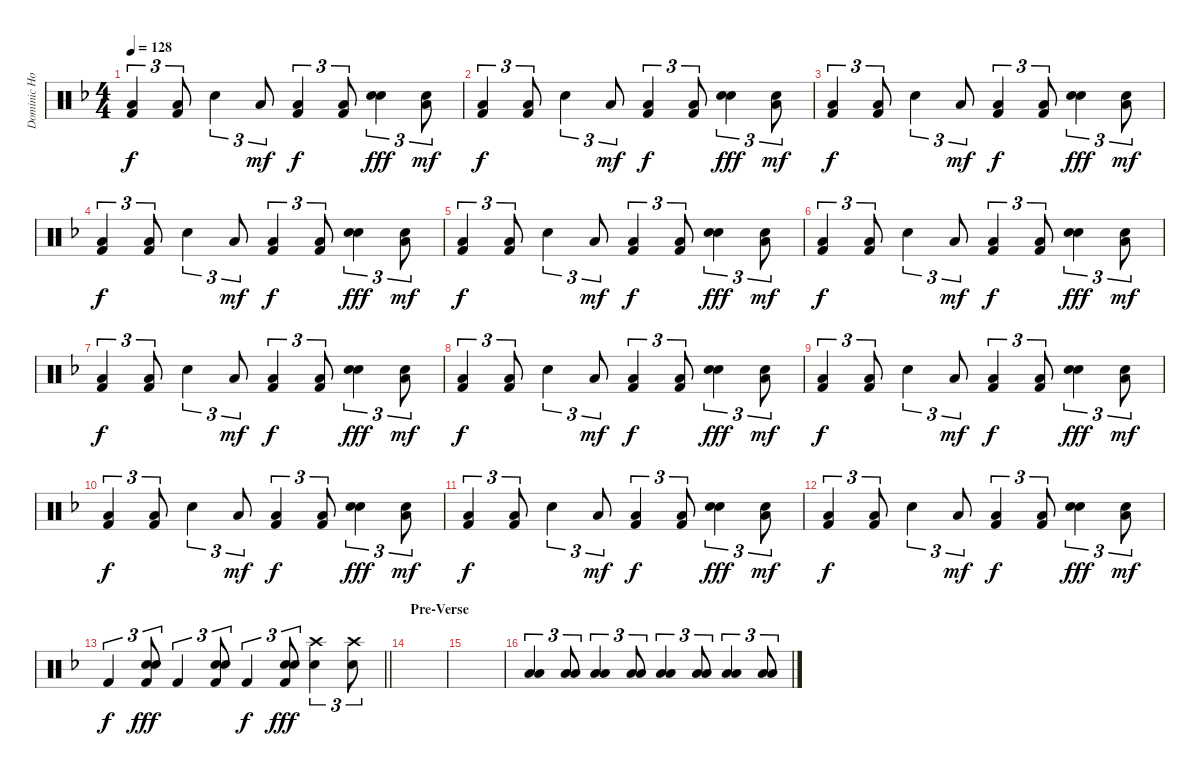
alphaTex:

\track ("Dominic Howard Drums" "Dominic Ho") {instrument percussion}
\staff {score}
\articulation defaults
\ts (4 4)
\tempo 128
\clef neutral
\ks dminor
("Low Floor Tom (hit)" "Kick (hit) 2").4{tu (3 2) dy f} ("Low Floor Tom (hit)" "Kick (hit) 2").8{tu (3 2)} "Snare (hit) 2".4{tu (3 2)} "Low Tom (hit)".8{tu (3 2) dy mf} ("Low Floor Tom (hit)" "Kick (hit) 2").4{tu (3 2) dy f} ("Low Floor Tom (hit)" "Kick (hit) 2").8{tu (3 2)} ("Hand Clap (hit)" "Snare (hit) 2").4{tu (3 2) dy fff} ("Hand Clap (hit)" "Low Tom (hit)").8{tu (3 2) dy mf} |
("Low Floor Tom (hit)" "Kick (hit) 2").4{tu (3 2) dy f} ("Low Floor Tom (hit)" "Kick (hit) 2").8{tu (3 2)} "Snare (hit) 2".4{tu (3 2)} "Low Tom (hit)".8{tu (3 2) dy mf} ("Low Floor Tom (hit)" "Kick (hit) 2").4{tu (3 2) dy f} ("Low Floor Tom (hit)" "Kick (hit) 2").8{tu (3 2)} ("Hand Clap (hit)" "Snare (hit) 2").4{tu (3 2) dy fff} ("Hand Clap (hit)" "Low Tom (hit)").8{tu (3 2) dy mf} |
("Low Floor Tom (hit)" "Kick (hit) 2").4{tu (3 2) dy f} ("Low Floor Tom (hit)" "Kick (hit) 2").8{tu (3 2)} "Snare (hit) 2".4{tu (3 2)} "Low Tom (hit)".8{tu (3 2) dy mf} ("Low Floor Tom (hit)" "Kick (hit) 2").4{tu (3 2) dy f} ("Low Floor Tom (hit)" "Kick (hit) 2").8{tu (3 2)} ("Hand Clap (hit)" "Snare (hit) 2").4{tu (3 2) dy fff} ("Hand Clap (hit)" "Low Tom (hit)").8{tu (3 2) dy mf} |
("Low Floor Tom (hit)" "Kick (hit) 2").4{tu (3 2) dy f} ("Low Floor Tom (hit)" "Kick (hit) 2").8{tu (3 2)} "Snare (hit) 2".4{tu (3 2)} "Low Tom (hit)".8{tu (3 2) dy mf} ("Low Floor Tom (hit)" "Kick (hit) 2").4{tu (3 2) dy f} ("Low Floor Tom (hit)" "Kick (hit) 2").8{tu (3 2)} ("Hand Clap (hit)" "Snare (hit) 2").4{tu (3 2) dy fff} ("Hand Clap (hit)" "Low Tom (hit)").8{tu (3 2) dy mf} |
("Low Floor Tom (hit)" "Kick (hit) 2").4{tu (3 2) dy f} ("Low Floor Tom (hit)" "Kick (hit) 2").8{tu (3 2)} "Snare (hit) 2".4{tu (3 2)} "Low Tom (hit)".8{tu (3 2) dy mf} ("Low Floor Tom (hit)" "Kick (hit) 2").4{tu (3 2) dy f} ("Low Floor Tom (hit)" "Kick (hit) 2").8{tu (3 2)} ("Hand Clap (hit)" "Snare (hit) 2").4{tu (3 2) dy fff} ("Hand Clap (hit)" "Low Tom (hit)").8{tu (3 2) dy mf} |
("Low Floor Tom (hit)" "Kick (hit) 2").4{tu (3 2) dy f} ("Low Floor Tom (hit)" "Kick (hit) 2").8{tu (3 2)} "Snare (hit) 2".4{tu (3 2)} "Low Tom (hit)".8{tu (3 2) dy mf} ("Low Floor Tom (hit)" "Kick (hit) 2").4{tu (3 2) dy f} ("Low Floor Tom (hit)" "Kick (hit) 2").8{tu (3 2)} ("Hand Clap (hit)" "Snare (hit) 2").4{tu (3 2) dy fff} ("Hand Clap (hit)" "Low Tom (hit)").8{tu (3 2) dy mf} |
("Low Floor Tom (hit)" "Kick (hit) 2").4{tu (3 2) dy f} ("Low Floor Tom (hit)" "Kick (hit) 2").8{tu (3 2)} "Snare (hit) 2".4{tu (3 2)} "Low Tom (hit)".8{tu (3 2) dy mf} ("Low Floor Tom (hit)" "Kick (hit) 2").4{tu (3 2) dy f} ("Low Floor Tom (hit)" "Kick (hit) 2").8{tu (3 2)} ("Hand Clap (hit)" "Snare (hit) 2").4{tu (3 2) dy fff} ("Hand Clap (hit)" "Low Tom (hit)").8{tu (3 2) dy mf} |
("Low Floor Tom (hit)" "Kick (hit) 2").4{tu (3 2) dy f} ("Low Floor Tom (hit)" "Kick (hit) 2").8{tu (3 2)} "Snare (hit) 2".4{tu (3 2)} "Low Tom (hit)".8{tu (3 2) dy mf} ("Low Floor Tom (hit)" "Kick (hit) 2").4{tu (3 2) dy f} ("Low Floor Tom (hit)" "Kick (hit) 2").8{tu (3 2)} ("Hand Clap (hit)" "Snare (hit) 2").4{tu (3 2) dy fff} ("Hand Clap (hit)" "Low Tom (hit)").8{tu (3 2) dy mf} |
("Low Floor Tom (hit)" "Kick (hit) 2").4{tu (3 2) dy f} ("Low Floor Tom (hit)" "Kick (hit) 2").8{tu (3 2)} "Snare (hit) 2".4{tu (3 2)} "Low Tom (hit)".8{tu (3 2) dy mf} ("Low Floor Tom (hit)" "Kick (hit) 2").4{tu (3 2) dy f} ("Low Floor Tom (hit)" "Kick (hit) 2").8{tu (3 2)} ("Hand Clap (hit)" "Snare (hit) 2").4{tu (3 2) dy fff} ("Hand Clap (hit)" "Low Tom (hit)").8{tu (3 2) dy mf} |
("Low Floor Tom (hit)" "Kick (hit) 2").4{tu (3 2) dy f} ("Low Floor Tom (hit)" "Kick (hit) 2").8{tu (3 2)} "Snare (hit) 2".4{tu (3 2)} "Low Tom (hit)".8{tu (3 2) dy mf} ("Low Floor Tom (hit)" "Kick (hit) 2").4{tu (3 2) dy f} ("Low Floor Tom (hit)" "Kick (hit) 2").8{tu (3 2)} ("Hand Clap (hit)" "Snare (hit) 2").4{tu (3 2) dy fff} ("Hand Clap (hit)" "Low Tom (hit)").8{tu (3 2) dy mf} |
("Low Floor Tom (hit)" "Kick (hit) 2").4{tu (3 2) dy f} ("Low Floor Tom (hit)" "Kick (hit) 2").8{tu (3 2)} "Snare (hit) 2".4{tu (3 2)} "Low Tom (hit)".8{tu (3 2) dy mf} ("Low Floor Tom (hit)" "Kick (hit) 2").4{tu (3 2) dy f} ("Low Floor Tom (hit)" "Kick (hit) 2").8{tu (3 2)} ("Hand Clap (hit)" "Snare (hit) 2").4{tu (3 2) dy fff} ("Hand Clap (hit)" "Low Tom (hit)").8{tu (3 2) dy mf} |
("Low Floor Tom (hit)" "Kick (hit) 2").4{tu (3 2) dy f} ("Low Floor Tom (hit)" "Kick (hit) 2").8{tu (3 2)} "Snare (hit) 2".4{tu (3 2)} "Low Tom (hit)".8{tu (3 2) dy mf} ("Low Floor Tom (hit)" "Kick (hit) 2").4{tu (3 2) dy f} ("Low Floor Tom (hit)" "Kick (hit) 2").8{tu (3 2)} ("Hand Clap (hit)" "Snare (hit) 2").4{tu (3 2) dy fff} ("Hand Clap (hit)" "Low Tom (hit)").8{tu (3 2) dy mf} |
\barLineRight lightlight "Kick (hit) 2".4{tu (3 2) dy f}
("Electric Snare (hit)" "Snare (hit) 2" "Kick (hit) 2").8{tu (3 2) dy fff} "Kick (hit) 2".4{tu (3 2)} ("Electric Snare (hit)" "Snare (hit) 2" "Kick (hit) 2").8{tu (3 2)} "Kick (hit) 2".4{tu (3 2) dy f} ("Electric Snare (hit)" "Snare (hit) 2" "Kick (hit) 2").8{tu (3 2) dy fff} ("Crash high (hit)" "Snare (hit) 2").4{tu (3 2)} ("Crash high (hit)" "Snare (hit) 2").8{tu (3 2)} |
\section ("" "Pre-Verse")
|
|
("Low Tom (hit)" "Low Floor Tom (hit)").4{tu (3 2) volume 13} ("Low Tom (hit)" "Low Floor Tom (hit)").8{tu (3 2)} ("Low Tom (hit)" "Low Floor Tom (hit)").4{tu (3 2)} ("Low Tom (hit)" "Low Floor Tom (hit)").8{tu (3 2)} ("Low Tom (hit)" "Low Floor Tom (hit)").4{tu (3 2)} ("Low Tom (hit)" "Low Floor Tom (hit)").8{tu (3 2)} ("Low Tom (hit)" "Low Floor Tom (hit)").4{tu (3 2)} ("Low Tom (hit)" "Low Floor Tom (hit)").8{tu (3 2)}
